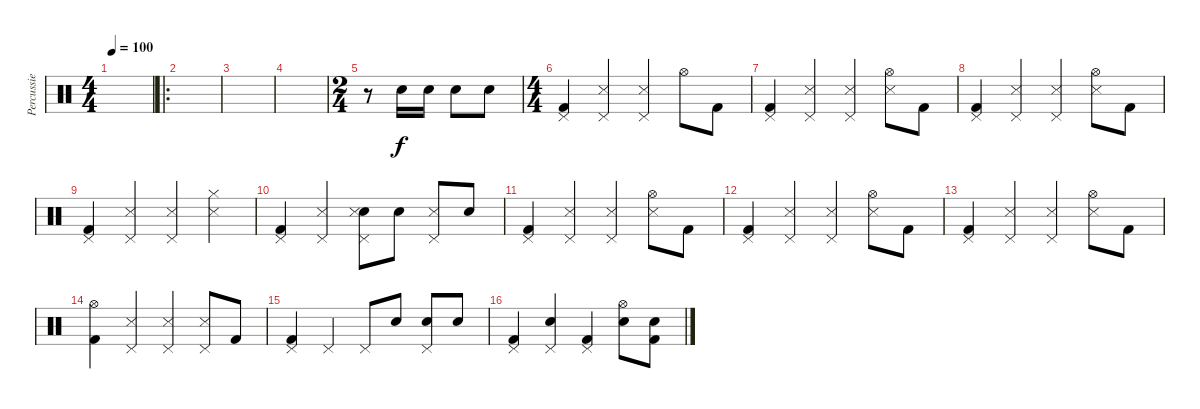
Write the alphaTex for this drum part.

\track ("Percussie" "Percussie") {instrument percussion}
\staff {score}
\articulation defaults
\ts (4 4)
\tempo 100
\clef neutral
\ks c
|
\ro
|
|
|
\ts (2 4)
r.8 "Snare (hit) 2".16 "Snare (hit) 2".16 "Snare (hit) 2".8 "Snare (hit) 2".8 |
\ts (4 4)
("Pedal Hi-Hat (hit)" "Kick (hit) 2").4 ("Pedal Hi-Hat (hit)" "Snare (side stick) 3").4 ("Pedal Hi-Hat (hit)" "Snare (side stick) 3").4 "Hi-Hat (open)".8 "Kick (hit) 2".8 |
("Pedal Hi-Hat (hit)" "Kick (hit) 2").4 ("Pedal Hi-Hat (hit)" "Snare (side stick) 3").4 ("Pedal Hi-Hat (hit)" "Snare (side stick) 3").4 ("Hi-Hat (open)" "Snare (side stick) 3").8 "Kick (hit) 2".8 |
("Pedal Hi-Hat (hit)" "Kick (hit) 2").4 ("Pedal Hi-Hat (hit)" "Snare (side stick) 3").4 ("Pedal Hi-Hat (hit)" "Snare (side stick) 3").4 ("Hi-Hat (open)" "Snare (side stick) 3").8 "Kick (hit) 2".8 |
("Pedal Hi-Hat (hit)" "Kick (hit) 2").4 ("Pedal Hi-Hat (hit)" "Snare (side stick) 3").4 ("Pedal Hi-Hat (hit)" "Snare (side stick) 3").4 ("Hi-Hat (closed)" "Snare (side stick) 3").4 |
("Pedal Hi-Hat (hit)" "Kick (hit) 2").4 ("Pedal Hi-Hat (hit)" "Snare (side stick) 3").4 ("Pedal Hi-Hat (hit)" "Snare (hit) 2" "Snare (side stick) 3").8 "Snare (hit) 2".8 ("Pedal Hi-Hat (hit)" "Snare (side stick) 3").8 "Snare (hit) 2".8 |
("Pedal Hi-Hat (hit)" "Kick (hit) 2").4 ("Pedal Hi-Hat (hit)" "Snare (side stick) 3").4 ("Pedal Hi-Hat (hit)" "Snare (side stick) 3").4 ("Hi-Hat (open)" "Snare (side stick) 3").8 "Kick (hit) 2".8 |
("Pedal Hi-Hat (hit)" "Kick (hit) 2").4 ("Pedal Hi-Hat (hit)" "Snare (side stick) 3").4 ("Pedal Hi-Hat (hit)" "Snare (side stick) 3").4 ("Hi-Hat (open)" "Snare (side stick) 3").8 "Kick (hit) 2".8 |
("Pedal Hi-Hat (hit)" "Kick (hit) 2").4 ("Pedal Hi-Hat (hit)" "Snare (side stick) 3").4 ("Pedal Hi-Hat (hit)" "Snare (side stick) 3").4 ("Hi-Hat (open)" "Snare (side stick) 3").8 "Kick (hit) 2".8 |
("Hi-Hat (open)" "Kick (hit) 2").4 ("Pedal Hi-Hat (hit)" "Snare (side stick) 3").4 ("Pedal Hi-Hat (hit)" "Snare (side stick) 3").4 ("Pedal Hi-Hat (hit)" "Snare (side stick) 3").8 "Kick (hit) 2".8 |
("Pedal Hi-Hat (hit)" "Kick (hit) 2").4 "Pedal Hi-Hat (hit)".4 "Pedal Hi-Hat (hit)".8 "Snare (hit) 2".8 ("Pedal Hi-Hat (hit)" "Snare (hit) 2").8 "Snare (hit) 2".8 |
("Pedal Hi-Hat (hit)" "Kick (hit) 2").4 ("Pedal Hi-Hat (hit)" "Snare (hit) 2").4 ("Pedal Hi-Hat (hit)" "Kick (hit) 2").4 ("Hi-Hat (open)" "Snare (hit) 2").8 ("Snare (hit) 2" "Kick (hit) 2").8
